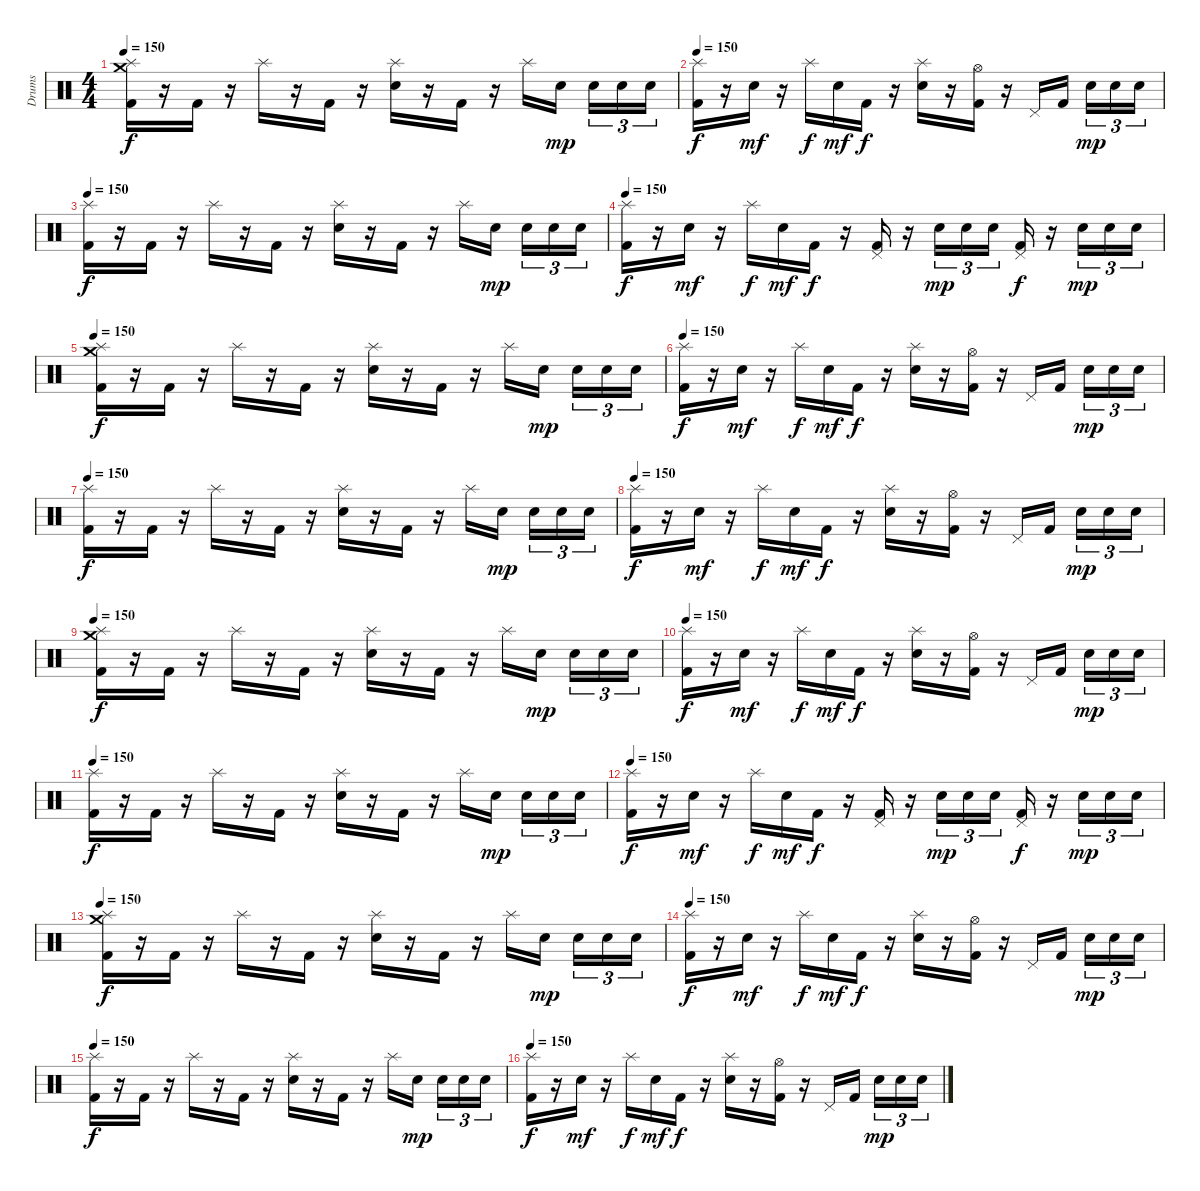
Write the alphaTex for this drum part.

\track ("Drums" "Drums") {instrument percussion}
\staff {score}
\articulation defaults
\ts (4 4)
\tempo 150
\clef neutral
\ks c
("Splash (hit)" "Crash medium (hit)" "Kick (hit) 2").16{dy f} r.16 "Kick (hit) 2".16 r.16 "Splash (hit)".16 r.16 "Kick (hit) 2".16 r.16 ("Splash (hit)" "Electric Snare (hit)").16 r.16 "Kick (hit) 2".16 r.16 "Splash (hit)".16 "Electric Snare (hit)".16{dy mp} "Electric Snare (hit)".16{tu (3 2)} "Electric Snare (hit)".16{tu (3 2)} "Electric Snare (hit)".16{tu (3 2)} |
\tempo 150
("Splash (hit)" "Kick (hit) 2").16{dy f} r.16 "Electric Snare (hit)".16{dy mf} r.16 "Splash (hit)".16{dy f} "Electric Snare (hit)".16{dy mf} "Kick (hit) 2".16{dy f} r.16 ("Splash (hit)" "Electric Snare (hit)").16 r.16 ("Hi-Hat (open)" "Kick (hit) 2").16 r.16 "Pedal Hi-Hat (hit)".16 "Kick (hit) 2".16 "Electric Snare (hit)".16{tu (3 2) dy mp} "Electric Snare (hit)".16{tu (3 2)} "Electric Snare (hit)".16{tu (3 2)} |
\tempo 150
("Splash (hit)" "Kick (hit) 2").16{dy f} r.16 "Kick (hit) 2".16 r.16 "Splash (hit)".16 r.16 "Kick (hit) 2".16 r.16 ("Splash (hit)" "Electric Snare (hit)").16 r.16 "Kick (hit) 2".16 r.16 "Splash (hit)".16 "Electric Snare (hit)".16{dy mp} "Electric Snare (hit)".16{tu (3 2)} "Electric Snare (hit)".16{tu (3 2)} "Electric Snare (hit)".16{tu (3 2)} |
\tempo 150
("Splash (hit)" "Kick (hit) 2").16{dy f} r.16 "Electric Snare (hit)".16{dy mf} r.16 "Splash (hit)".16{dy f} "Electric Snare (hit)".16{dy mf} "Kick (hit) 2".16{dy f} r.16 ("Pedal Hi-Hat (hit)" "Kick (hit) 2").16 r.16 "Electric Snare (hit)".16{tu (3 2) dy mp} "Electric Snare (hit)".16{tu (3 2)} "Electric Snare (hit)".16{tu (3 2)} ("Pedal Hi-Hat (hit)" "Kick (hit) 2").16{dy f} r.16 "Electric Snare (hit)".16{tu (3 2) dy mp} "Electric Snare (hit)".16{tu (3 2)} "Electric Snare (hit)".16{tu (3 2)} |
\tempo 150
("Splash (hit)" "Crash medium (hit)" "Kick (hit) 2").16{dy f} r.16 "Kick (hit) 2".16 r.16 "Splash (hit)".16 r.16 "Kick (hit) 2".16 r.16 ("Splash (hit)" "Electric Snare (hit)").16 r.16 "Kick (hit) 2".16 r.16 "Splash (hit)".16 "Electric Snare (hit)".16{dy mp} "Electric Snare (hit)".16{tu (3 2)} "Electric Snare (hit)".16{tu (3 2)} "Electric Snare (hit)".16{tu (3 2)} |
\tempo 150
("Splash (hit)" "Kick (hit) 2").16{dy f} r.16 "Electric Snare (hit)".16{dy mf} r.16 "Splash (hit)".16{dy f} "Electric Snare (hit)".16{dy mf} "Kick (hit) 2".16{dy f} r.16 ("Splash (hit)" "Electric Snare (hit)").16 r.16 ("Hi-Hat (open)" "Kick (hit) 2").16 r.16 "Pedal Hi-Hat (hit)".16 "Kick (hit) 2".16 "Electric Snare (hit)".16{tu (3 2) dy mp} "Electric Snare (hit)".16{tu (3 2)} "Electric Snare (hit)".16{tu (3 2)} |
\tempo 150
("Splash (hit)" "Kick (hit) 2").16{dy f} r.16 "Kick (hit) 2".16 r.16 "Splash (hit)".16 r.16 "Kick (hit) 2".16 r.16 ("Splash (hit)" "Electric Snare (hit)").16 r.16 "Kick (hit) 2".16 r.16 "Splash (hit)".16 "Electric Snare (hit)".16{dy mp} "Electric Snare (hit)".16{tu (3 2)} "Electric Snare (hit)".16{tu (3 2)} "Electric Snare (hit)".16{tu (3 2)} |
\tempo 150
("Splash (hit)" "Kick (hit) 2").16{dy f} r.16 "Electric Snare (hit)".16{dy mf} r.16 "Splash (hit)".16{dy f} "Electric Snare (hit)".16{dy mf} "Kick (hit) 2".16{dy f} r.16 ("Splash (hit)" "Electric Snare (hit)").16 r.16 ("Hi-Hat (open)" "Kick (hit) 2").16 r.16 "Pedal Hi-Hat (hit)".16 "Kick (hit) 2".16 "Electric Snare (hit)".16{tu (3 2) dy mp} "Electric Snare (hit)".16{tu (3 2)} "Electric Snare (hit)".16{tu (3 2)} |
\tempo 150
("Splash (hit)" "Crash medium (hit)" "Kick (hit) 2").16{dy f} r.16 "Kick (hit) 2".16 r.16 "Splash (hit)".16 r.16 "Kick (hit) 2".16 r.16 ("Splash (hit)" "Electric Snare (hit)").16 r.16 "Kick (hit) 2".16 r.16 "Splash (hit)".16 "Electric Snare (hit)".16{dy mp} "Electric Snare (hit)".16{tu (3 2)} "Electric Snare (hit)".16{tu (3 2)} "Electric Snare (hit)".16{tu (3 2)} |
\tempo 150
("Splash (hit)" "Kick (hit) 2").16{dy f} r.16 "Electric Snare (hit)".16{dy mf} r.16 "Splash (hit)".16{dy f} "Electric Snare (hit)".16{dy mf} "Kick (hit) 2".16{dy f} r.16 ("Splash (hit)" "Electric Snare (hit)").16 r.16 ("Hi-Hat (open)" "Kick (hit) 2").16 r.16 "Pedal Hi-Hat (hit)".16 "Kick (hit) 2".16 "Electric Snare (hit)".16{tu (3 2) dy mp} "Electric Snare (hit)".16{tu (3 2)} "Electric Snare (hit)".16{tu (3 2)} |
\tempo 150
("Splash (hit)" "Kick (hit) 2").16{dy f} r.16 "Kick (hit) 2".16 r.16 "Splash (hit)".16 r.16 "Kick (hit) 2".16 r.16 ("Splash (hit)" "Electric Snare (hit)").16 r.16 "Kick (hit) 2".16 r.16 "Splash (hit)".16 "Electric Snare (hit)".16{dy mp} "Electric Snare (hit)".16{tu (3 2)} "Electric Snare (hit)".16{tu (3 2)} "Electric Snare (hit)".16{tu (3 2)} |
\tempo 150
("Splash (hit)" "Kick (hit) 2").16{dy f} r.16 "Electric Snare (hit)".16{dy mf} r.16 "Splash (hit)".16{dy f} "Electric Snare (hit)".16{dy mf} "Kick (hit) 2".16{dy f} r.16 ("Pedal Hi-Hat (hit)" "Kick (hit) 2").16 r.16 "Electric Snare (hit)".16{tu (3 2) dy mp} "Electric Snare (hit)".16{tu (3 2)} "Electric Snare (hit)".16{tu (3 2)} ("Pedal Hi-Hat (hit)" "Kick (hit) 2").16{dy f} r.16 "Electric Snare (hit)".16{tu (3 2) dy mp} "Electric Snare (hit)".16{tu (3 2)} "Electric Snare (hit)".16{tu (3 2)} |
\tempo 150
("Splash (hit)" "Crash medium (hit)" "Kick (hit) 2").16{dy f} r.16 "Kick (hit) 2".16 r.16 "Splash (hit)".16 r.16 "Kick (hit) 2".16 r.16 ("Splash (hit)" "Electric Snare (hit)").16 r.16 "Kick (hit) 2".16 r.16 "Splash (hit)".16 "Electric Snare (hit)".16{dy mp} "Electric Snare (hit)".16{tu (3 2)} "Electric Snare (hit)".16{tu (3 2)} "Electric Snare (hit)".16{tu (3 2)} |
\tempo 150
("Splash (hit)" "Kick (hit) 2").16{dy f} r.16 "Electric Snare (hit)".16{dy mf} r.16 "Splash (hit)".16{dy f} "Electric Snare (hit)".16{dy mf} "Kick (hit) 2".16{dy f} r.16 ("Splash (hit)" "Electric Snare (hit)").16 r.16 ("Hi-Hat (open)" "Kick (hit) 2").16 r.16 "Pedal Hi-Hat (hit)".16 "Kick (hit) 2".16 "Electric Snare (hit)".16{tu (3 2) dy mp} "Electric Snare (hit)".16{tu (3 2)} "Electric Snare (hit)".16{tu (3 2)} |
\tempo 150
("Splash (hit)" "Kick (hit) 2").16{dy f} r.16 "Kick (hit) 2".16 r.16 "Splash (hit)".16 r.16 "Kick (hit) 2".16 r.16 ("Splash (hit)" "Electric Snare (hit)").16 r.16 "Kick (hit) 2".16 r.16 "Splash (hit)".16 "Electric Snare (hit)".16{dy mp} "Electric Snare (hit)".16{tu (3 2)} "Electric Snare (hit)".16{tu (3 2)} "Electric Snare (hit)".16{tu (3 2)} |
\tempo 150
("Splash (hit)" "Kick (hit) 2").16{dy f} r.16 "Electric Snare (hit)".16{dy mf} r.16 "Splash (hit)".16{dy f} "Electric Snare (hit)".16{dy mf} "Kick (hit) 2".16{dy f} r.16 ("Splash (hit)" "Electric Snare (hit)").16 r.16 ("Hi-Hat (open)" "Kick (hit) 2").16 r.16 "Pedal Hi-Hat (hit)".16 "Kick (hit) 2".16 "Electric Snare (hit)".16{tu (3 2) dy mp} "Electric Snare (hit)".16{tu (3 2)} "Electric Snare (hit)".16{tu (3 2)}
